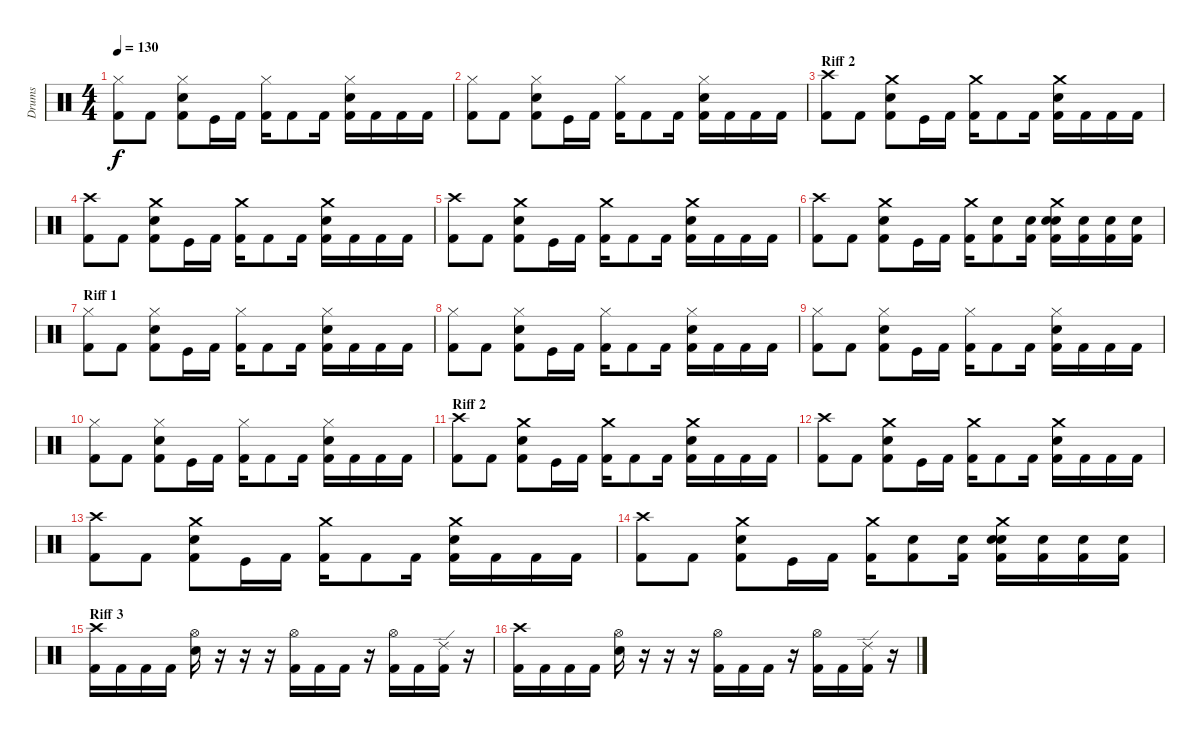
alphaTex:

\track ("Drums" "Drums") {instrument percussion}
\staff {score}
\articulation defaults
\ts (4 4)
\tempo 130
\clef neutral
\ks c
("Hi-Hat (closed)" "Kick (hit) 2").8{dy f} "Kick (hit) 2".8 ("Hi-Hat (closed)" "Electric Snare (hit)" "Kick (hit) 2").8 "Kick (hit)".16 "Kick (hit) 2".16 ("Hi-Hat (closed)" "Kick (hit) 2").16 "Kick (hit) 2".8 "Kick (hit) 2".16 ("Hi-Hat (closed)" "Electric Snare (hit)" "Kick (hit) 2").16 "Kick (hit) 2".16 "Kick (hit) 2".16 "Kick (hit) 2".16 |
("Hi-Hat (closed)" "Kick (hit) 2").8 "Kick (hit) 2".8 ("Hi-Hat (closed)" "Electric Snare (hit)" "Kick (hit) 2").8 "Kick (hit)".16 "Kick (hit) 2".16 ("Hi-Hat (closed)" "Kick (hit) 2").16 "Kick (hit) 2".8 "Kick (hit) 2".16 ("Hi-Hat (closed)" "Electric Snare (hit)" "Kick (hit) 2").16 "Kick (hit) 2".16 "Kick (hit) 2".16 "Kick (hit) 2".16 |
\section ("" "Riff 2")
("Crash high (hit)" "Kick (hit) 2").8 "Kick (hit) 2".8 ("Crash medium (hit)" "Electric Snare (hit)" "Kick (hit) 2").8 "Kick (hit)".16 "Kick (hit) 2".16 ("Crash medium (hit)" "Kick (hit) 2").16 "Kick (hit) 2".8 "Kick (hit) 2".16 ("Crash medium (hit)" "Electric Snare (hit)" "Kick (hit) 2").16 "Kick (hit) 2".16 "Kick (hit) 2".16 "Kick (hit) 2".16 |
("Crash high (hit)" "Kick (hit) 2").8 "Kick (hit) 2".8 ("Crash medium (hit)" "Electric Snare (hit)" "Kick (hit) 2").8 "Kick (hit)".16 "Kick (hit) 2".16 ("Crash medium (hit)" "Kick (hit) 2").16 "Kick (hit) 2".8 "Kick (hit) 2".16 ("Crash medium (hit)" "Electric Snare (hit)" "Kick (hit) 2").16 "Kick (hit) 2".16 "Kick (hit) 2".16 "Kick (hit) 2".16 |
("Crash high (hit)" "Kick (hit) 2").8 "Kick (hit) 2".8 ("Crash medium (hit)" "Electric Snare (hit)" "Kick (hit) 2").8 "Kick (hit)".16 "Kick (hit) 2".16 ("Crash medium (hit)" "Kick (hit) 2").16 "Kick (hit) 2".8 "Kick (hit) 2".16 ("Crash medium (hit)" "Electric Snare (hit)" "Kick (hit) 2").16 "Kick (hit) 2".16 "Kick (hit) 2".16 "Kick (hit) 2".16 |
("Crash high (hit)" "Kick (hit) 2").8 "Kick (hit) 2".8 ("Crash medium (hit)" "Electric Snare (hit)" "Kick (hit) 2").8 "Kick (hit)".16 "Kick (hit) 2".16 ("Crash medium (hit)" "Kick (hit) 2").16 ("Electric Snare (hit)" "Kick (hit) 2").8 ("Electric Snare (hit)" "Kick (hit) 2").16 ("Crash medium (hit)" "Electric Snare (hit)" "Electric Snare (hit)" "Kick (hit) 2").16 ("Electric Snare (hit)" "Kick (hit) 2").16 ("Electric Snare (hit)" "Kick (hit) 2").16 ("Electric Snare (hit)" "Kick (hit) 2").16 |
\section ("" "Riff 1")
("Hi-Hat (closed)" "Kick (hit) 2").8 "Kick (hit) 2".8 ("Hi-Hat (closed)" "Electric Snare (hit)" "Kick (hit) 2").8 "Kick (hit)".16 "Kick (hit) 2".16 ("Hi-Hat (closed)" "Kick (hit) 2").16 "Kick (hit) 2".8 "Kick (hit) 2".16 ("Hi-Hat (closed)" "Electric Snare (hit)" "Kick (hit) 2").16 "Kick (hit) 2".16 "Kick (hit) 2".16 "Kick (hit) 2".16 |
("Hi-Hat (closed)" "Kick (hit) 2").8 "Kick (hit) 2".8 ("Hi-Hat (closed)" "Electric Snare (hit)" "Kick (hit) 2").8 "Kick (hit)".16 "Kick (hit) 2".16 ("Hi-Hat (closed)" "Kick (hit) 2").16 "Kick (hit) 2".8 "Kick (hit) 2".16 ("Hi-Hat (closed)" "Electric Snare (hit)" "Kick (hit) 2").16 "Kick (hit) 2".16 "Kick (hit) 2".16 "Kick (hit) 2".16 |
("Hi-Hat (closed)" "Kick (hit) 2").8 "Kick (hit) 2".8 ("Hi-Hat (closed)" "Electric Snare (hit)" "Kick (hit) 2").8 "Kick (hit)".16 "Kick (hit) 2".16 ("Hi-Hat (closed)" "Kick (hit) 2").16 "Kick (hit) 2".8 "Kick (hit) 2".16 ("Hi-Hat (closed)" "Electric Snare (hit)" "Kick (hit) 2").16 "Kick (hit) 2".16 "Kick (hit) 2".16 "Kick (hit) 2".16 |
("Hi-Hat (closed)" "Kick (hit) 2").8 "Kick (hit) 2".8 ("Hi-Hat (closed)" "Electric Snare (hit)" "Kick (hit) 2").8 "Kick (hit)".16 "Kick (hit) 2".16 ("Hi-Hat (closed)" "Kick (hit) 2").16 "Kick (hit) 2".8 "Kick (hit) 2".16 ("Hi-Hat (closed)" "Electric Snare (hit)" "Kick (hit) 2").16 "Kick (hit) 2".16 "Kick (hit) 2".16 "Kick (hit) 2".16 |
\section ("" "Riff 2")
("Crash high (hit)" "Kick (hit) 2").8 "Kick (hit) 2".8 ("Crash medium (hit)" "Electric Snare (hit)" "Kick (hit) 2").8 "Kick (hit)".16 "Kick (hit) 2".16 ("Crash medium (hit)" "Kick (hit) 2").16 "Kick (hit) 2".8 "Kick (hit) 2".16 ("Crash medium (hit)" "Electric Snare (hit)" "Kick (hit) 2").16 "Kick (hit) 2".16 "Kick (hit) 2".16 "Kick (hit) 2".16 |
("Crash high (hit)" "Kick (hit) 2").8 "Kick (hit) 2".8 ("Crash medium (hit)" "Electric Snare (hit)" "Kick (hit) 2").8 "Kick (hit)".16 "Kick (hit) 2".16 ("Crash medium (hit)" "Kick (hit) 2").16 "Kick (hit) 2".8 "Kick (hit) 2".16 ("Crash medium (hit)" "Electric Snare (hit)" "Kick (hit) 2").16 "Kick (hit) 2".16 "Kick (hit) 2".16 "Kick (hit) 2".16 |
("Crash high (hit)" "Kick (hit) 2").8 "Kick (hit) 2".8 ("Crash medium (hit)" "Electric Snare (hit)" "Kick (hit) 2").8 "Kick (hit)".16 "Kick (hit) 2".16 ("Crash medium (hit)" "Kick (hit) 2").16 "Kick (hit) 2".8 "Kick (hit) 2".16 ("Crash medium (hit)" "Electric Snare (hit)" "Kick (hit) 2").16 "Kick (hit) 2".16 "Kick (hit) 2".16 "Kick (hit) 2".16 |
("Crash high (hit)" "Kick (hit) 2").8 "Kick (hit) 2".8 ("Crash medium (hit)" "Electric Snare (hit)" "Kick (hit) 2").8 "Kick (hit)".16 "Kick (hit) 2".16 ("Crash medium (hit)" "Kick (hit) 2").16 ("Electric Snare (hit)" "Kick (hit) 2").8 ("Electric Snare (hit)" "Kick (hit) 2").16 ("Crash medium (hit)" "Electric Snare (hit)" "Electric Snare (hit)" "Kick (hit) 2").16 ("Electric Snare (hit)" "Kick (hit) 2").16 ("Electric Snare (hit)" "Kick (hit) 2").16 ("Electric Snare (hit)" "Kick (hit) 2").16 |
\section ("" "Riff 3")
("Crash high (hit)" "Kick (hit) 2").16 "Kick (hit) 2".16 "Kick (hit) 2".16 "Kick (hit) 2".16 ("Hi-Hat (open)" "Electric Snare (hit)").16 r.16 r.16 r.16 ("Hi-Hat (open)" "Kick (hit) 2").16 "Kick (hit) 2".16 "Kick (hit) 2".16 r.16 ("Hi-Hat (open)" "Kick (hit) 2").16 "Kick (hit) 2".16 ("Ride (edge) 2" "Kick (hit) 2").16 r.16 |
("Crash high (hit)" "Kick (hit) 2").16 "Kick (hit) 2".16 "Kick (hit) 2".16 "Kick (hit) 2".16 ("Hi-Hat (open)" "Electric Snare (hit)").16 r.16 r.16 r.16 ("Hi-Hat (open)" "Kick (hit) 2").16 "Kick (hit) 2".16 "Kick (hit) 2".16 r.16 ("Hi-Hat (open)" "Kick (hit) 2").16 "Kick (hit) 2".16 ("Ride (edge) 2" "Kick (hit) 2").16 r.16
